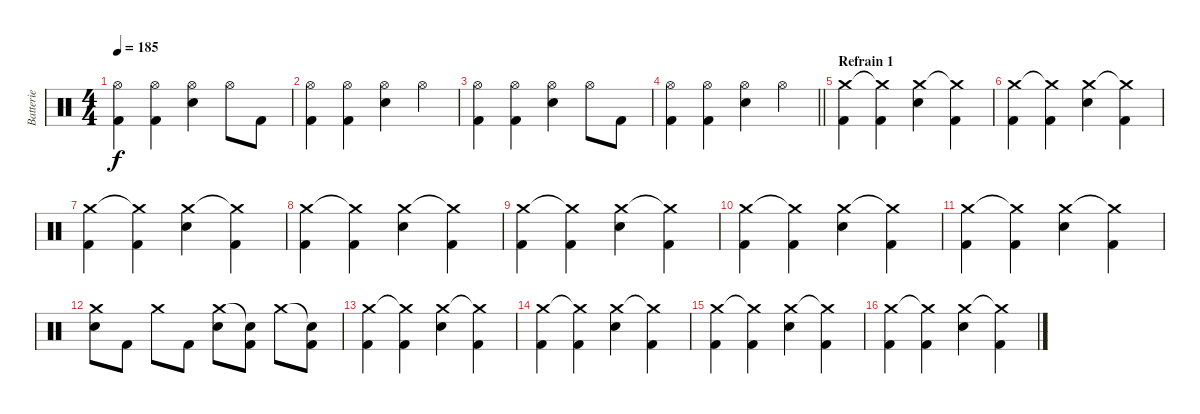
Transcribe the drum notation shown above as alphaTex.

\track ("Batterie" "Batterie") {instrument percussion}
\staff {score}
\articulation defaults
\ts (4 4)
\tempo 185
\clef neutral
\ks c
("Hi-Hat (open)" "Kick (hit) 2").4{dy f} ("Hi-Hat (open)" "Kick (hit) 2").4 ("Hi-Hat (open)" "Electric Snare (hit)").4 "Hi-Hat (open)".8 "Kick (hit) 2".8 |
("Hi-Hat (open)" "Kick (hit) 2").4 ("Hi-Hat (open)" "Kick (hit) 2").4 ("Hi-Hat (open)" "Electric Snare (hit)").4 "Hi-Hat (open)".4 |
("Hi-Hat (open)" "Kick (hit) 2").4 ("Hi-Hat (open)" "Kick (hit) 2").4 ("Hi-Hat (open)" "Electric Snare (hit)").4 "Hi-Hat (open)".8 "Kick (hit) 2".8 |
\barLineRight lightlight
("Hi-Hat (open)" "Kick (hit) 2").4 ("Hi-Hat (open)" "Kick (hit) 2").4 ("Hi-Hat (open)" "Electric Snare (hit)").4 "Hi-Hat (open)".4 |
\section ("" "Refrain 1")
("Crash medium (hit)" "Kick (hit) 2").4 ("Crash medium (hit)"{t} "Kick (hit) 2").4 ("Crash medium (hit)" "Electric Snare (hit)").4 ("Crash medium (hit)"{t} "Kick (hit) 2").4 |
("Crash medium (hit)" "Kick (hit) 2").4 ("Crash medium (hit)"{t} "Kick (hit) 2").4 ("Crash medium (hit)" "Electric Snare (hit)").4 ("Crash medium (hit)"{t} "Kick (hit) 2").4 |
("Crash medium (hit)" "Kick (hit) 2").4 ("Crash medium (hit)"{t} "Kick (hit) 2").4 ("Crash medium (hit)" "Electric Snare (hit)").4 ("Crash medium (hit)"{t} "Kick (hit) 2").4 |
("Crash medium (hit)" "Kick (hit) 2").4 ("Crash medium (hit)"{t} "Kick (hit) 2").4 ("Crash medium (hit)" "Electric Snare (hit)").4 ("Crash medium (hit)"{t} "Kick (hit) 2").4 |
("Crash medium (hit)" "Kick (hit) 2").4 ("Crash medium (hit)"{t} "Kick (hit) 2").4 ("Crash medium (hit)" "Electric Snare (hit)").4 ("Crash medium (hit)"{t} "Kick (hit) 2").4 |
("Crash medium (hit)" "Kick (hit) 2").4 ("Crash medium (hit)"{t} "Kick (hit) 2").4 ("Crash medium (hit)" "Electric Snare (hit)").4 ("Crash medium (hit)"{t} "Kick (hit) 2").4 |
("Crash medium (hit)" "Kick (hit) 2").4 ("Crash medium (hit)"{t} "Kick (hit) 2").4 ("Crash medium (hit)" "Electric Snare (hit)").4 ("Crash medium (hit)"{t} "Kick (hit) 2").4 |
("Crash medium (hit)" "Electric Snare (hit)").8 "Kick (hit) 2".8 "Crash medium (hit)".8 "Kick (hit) 2".8 ("Crash medium (hit)" "Electric Snare (hit)").8 ("Snare (hit)"{t} "Kick (hit) 2").8 "Crash medium (hit)".8 ("Snare (hit)"{t} "Kick (hit) 2").8 |
("Crash medium (hit)" "Kick (hit) 2").4 ("Crash medium (hit)"{t} "Kick (hit) 2").4 ("Crash medium (hit)" "Electric Snare (hit)").4 ("Crash medium (hit)"{t} "Kick (hit) 2").4 |
("Crash medium (hit)" "Kick (hit) 2").4 ("Crash medium (hit)"{t} "Kick (hit) 2").4 ("Crash medium (hit)" "Electric Snare (hit)").4 ("Crash medium (hit)"{t} "Kick (hit) 2").4 |
("Crash medium (hit)" "Kick (hit) 2").4 ("Crash medium (hit)"{t} "Kick (hit) 2").4 ("Crash medium (hit)" "Electric Snare (hit)").4 ("Crash medium (hit)"{t} "Kick (hit) 2").4 |
("Crash medium (hit)" "Kick (hit) 2").4 ("Crash medium (hit)"{t} "Kick (hit) 2").4 ("Crash medium (hit)" "Electric Snare (hit)").4 ("Crash medium (hit)"{t} "Kick (hit) 2").4
